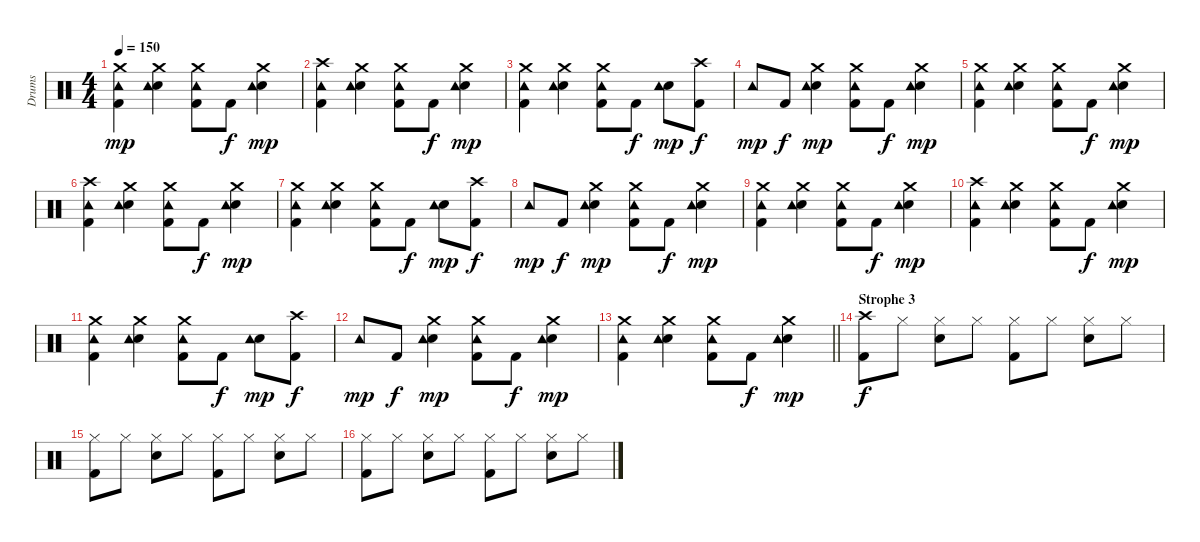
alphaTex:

\track ("Drums" "Drums") {instrument percussion}
\staff {score}
\articulation defaults
\ts (4 4)
\tempo 150
\clef neutral
\ks c
("Crash medium (hit)" "Kick (hit) 2" "Tambourine (hit)").4{dy mp} ("Crash medium (hit)" "Snare (hit) 2" "Tambourine (hit)").4 ("Crash medium (hit)" "Kick (hit) 2" "Tambourine (hit)").8 "Kick (hit) 2".8{dy f} ("Crash medium (hit)" "Snare (hit) 2" "Tambourine (hit)").4{dy mp} |
("Crash high (hit)" "Kick (hit) 2" "Tambourine (hit)").4 ("Crash medium (hit)" "Snare (hit) 2" "Tambourine (hit)").4 ("Crash medium (hit)" "Kick (hit) 2" "Tambourine (hit)").8 "Kick (hit) 2".8{dy f} ("Crash medium (hit)" "Snare (hit) 2" "Tambourine (hit)").4{dy mp} |
("Crash medium (hit)" "Kick (hit) 2" "Tambourine (hit)").4 ("Crash medium (hit)" "Snare (hit) 2" "Tambourine (hit)").4 ("Crash medium (hit)" "Kick (hit) 2" "Tambourine (hit)").8 "Kick (hit) 2".8{dy f} ("Snare (hit) 2" "Tambourine (hit)").8{dy mp} ("Crash high (hit)" "Kick (hit) 2").8{dy f} |
"Tambourine (hit)".8{dy mp} "Kick (hit) 2".8{dy f} ("Crash medium (hit)" "Snare (hit) 2" "Tambourine (hit)").4{dy mp} ("Crash medium (hit)" "Kick (hit) 2" "Tambourine (hit)").8 "Kick (hit) 2".8{dy f} ("Crash medium (hit)" "Snare (hit) 2" "Tambourine (hit)").4{dy mp} |
("Crash medium (hit)" "Kick (hit) 2" "Tambourine (hit)").4 ("Crash medium (hit)" "Snare (hit) 2" "Tambourine (hit)").4 ("Crash medium (hit)" "Kick (hit) 2" "Tambourine (hit)").8 "Kick (hit) 2".8{dy f} ("Crash medium (hit)" "Snare (hit) 2" "Tambourine (hit)").4{dy mp} |
("Crash high (hit)" "Kick (hit) 2" "Tambourine (hit)").4 ("Crash medium (hit)" "Snare (hit) 2" "Tambourine (hit)").4 ("Crash medium (hit)" "Kick (hit) 2" "Tambourine (hit)").8 "Kick (hit) 2".8{dy f} ("Crash medium (hit)" "Snare (hit) 2" "Tambourine (hit)").4{dy mp} |
("Crash medium (hit)" "Kick (hit) 2" "Tambourine (hit)").4 ("Crash medium (hit)" "Snare (hit) 2" "Tambourine (hit)").4 ("Crash medium (hit)" "Kick (hit) 2" "Tambourine (hit)").8 "Kick (hit) 2".8{dy f} ("Snare (hit) 2" "Tambourine (hit)").8{dy mp} ("Crash high (hit)" "Kick (hit) 2").8{dy f} |
"Tambourine (hit)".8{dy mp} "Kick (hit) 2".8{dy f} ("Crash medium (hit)" "Snare (hit) 2" "Tambourine (hit)").4{dy mp} ("Crash medium (hit)" "Kick (hit) 2" "Tambourine (hit)").8 "Kick (hit) 2".8{dy f} ("Crash medium (hit)" "Snare (hit) 2" "Tambourine (hit)").4{dy mp} |
("Crash medium (hit)" "Kick (hit) 2" "Tambourine (hit)").4 ("Crash medium (hit)" "Snare (hit) 2" "Tambourine (hit)").4 ("Crash medium (hit)" "Kick (hit) 2" "Tambourine (hit)").8 "Kick (hit) 2".8{dy f} ("Crash medium (hit)" "Snare (hit) 2" "Tambourine (hit)").4{dy mp} |
("Crash high (hit)" "Kick (hit) 2" "Tambourine (hit)").4 ("Crash medium (hit)" "Snare (hit) 2" "Tambourine (hit)").4 ("Crash medium (hit)" "Kick (hit) 2" "Tambourine (hit)").8 "Kick (hit) 2".8{dy f} ("Crash medium (hit)" "Snare (hit) 2" "Tambourine (hit)").4{dy mp} |
("Crash medium (hit)" "Kick (hit) 2" "Tambourine (hit)").4 ("Crash medium (hit)" "Snare (hit) 2" "Tambourine (hit)").4 ("Crash medium (hit)" "Kick (hit) 2" "Tambourine (hit)").8 "Kick (hit) 2".8{dy f} ("Snare (hit) 2" "Tambourine (hit)").8{dy mp} ("Crash high (hit)" "Kick (hit) 2").8{dy f} |
"Tambourine (hit)".8{dy mp} "Kick (hit) 2".8{dy f} ("Crash medium (hit)" "Snare (hit) 2" "Tambourine (hit)").4{dy mp} ("Crash medium (hit)" "Kick (hit) 2" "Tambourine (hit)").8 "Kick (hit) 2".8{dy f} ("Crash medium (hit)" "Snare (hit) 2" "Tambourine (hit)").4{dy mp} |
\barLineRight lightlight
("Crash medium (hit)" "Kick (hit) 2" "Tambourine (hit)").4 ("Crash medium (hit)" "Snare (hit) 2" "Tambourine (hit)").4 ("Crash medium (hit)" "Kick (hit) 2" "Tambourine (hit)").8 "Kick (hit) 2".8{dy f} ("Crash medium (hit)" "Snare (hit) 2" "Tambourine (hit)").4{dy mp} |
\section ("" "Strophe 3")
("Crash high (hit)" "Kick (hit) 2").8{dy f} "Hi-Hat (closed)".8 ("Hi-Hat (closed)" "Snare (hit) 2").8 "Hi-Hat (closed)".8 ("Hi-Hat (closed)" "Kick (hit) 2").8 "Hi-Hat (closed)".8 ("Hi-Hat (closed)" "Snare (hit) 2").8 "Hi-Hat (closed)".8 |
("Hi-Hat (closed)" "Kick (hit) 2").8 "Hi-Hat (closed)".8 ("Hi-Hat (closed)" "Snare (hit) 2").8 "Hi-Hat (closed)".8 ("Hi-Hat (closed)" "Kick (hit) 2").8 "Hi-Hat (closed)".8 ("Hi-Hat (closed)" "Snare (hit) 2").8 "Hi-Hat (closed)".8 |
("Hi-Hat (closed)" "Kick (hit) 2").8 "Hi-Hat (closed)".8 ("Hi-Hat (closed)" "Snare (hit) 2").8 "Hi-Hat (closed)".8 ("Hi-Hat (closed)" "Kick (hit) 2").8 "Hi-Hat (closed)".8 ("Hi-Hat (closed)" "Snare (hit) 2").8 "Hi-Hat (closed)".8
